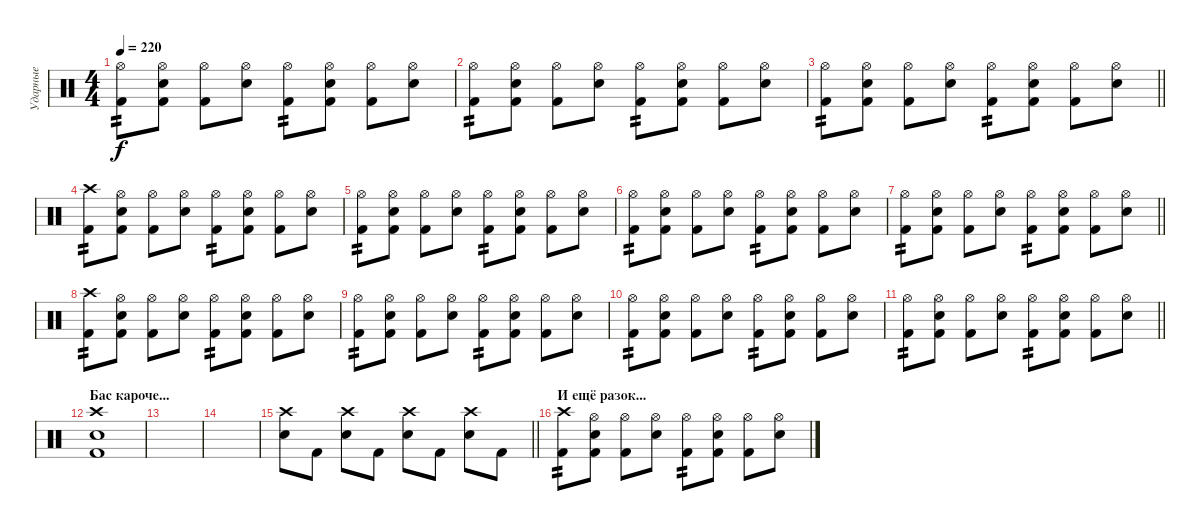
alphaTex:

\track ("Ударные" "Ударные") {instrument percussion}
\staff {score}
\articulation defaults
\ts (4 4)
\tempo 220
\clef neutral
\ks c
("Hi-Hat (open)" "Kick (hit) 2").8{tp 2 dy f} ("Hi-Hat (open)" "Electric Snare (hit)" "Kick (hit) 2").8 ("Hi-Hat (open)" "Kick (hit) 2").8 ("Hi-Hat (open)" "Electric Snare (hit)").8 ("Hi-Hat (open)" "Kick (hit) 2").8{tp 2} ("Hi-Hat (open)" "Electric Snare (hit)" "Kick (hit) 2").8 ("Hi-Hat (open)" "Kick (hit) 2").8 ("Hi-Hat (open)" "Electric Snare (hit)").8 |
("Hi-Hat (open)" "Kick (hit) 2").8{tp 2} ("Hi-Hat (open)" "Electric Snare (hit)" "Kick (hit) 2").8 ("Hi-Hat (open)" "Kick (hit) 2").8 ("Hi-Hat (open)" "Electric Snare (hit)").8 ("Hi-Hat (open)" "Kick (hit) 2").8{tp 2} ("Hi-Hat (open)" "Electric Snare (hit)" "Kick (hit) 2").8 ("Hi-Hat (open)" "Kick (hit) 2").8 ("Hi-Hat (open)" "Electric Snare (hit)").8 |
\barLineRight lightlight
("Hi-Hat (open)" "Kick (hit) 2").8{tp 2} ("Hi-Hat (open)" "Electric Snare (hit)" "Kick (hit) 2").8 ("Hi-Hat (open)" "Kick (hit) 2").8 ("Hi-Hat (open)" "Electric Snare (hit)").8 ("Hi-Hat (open)" "Kick (hit) 2").8{tp 2} ("Hi-Hat (open)" "Electric Snare (hit)" "Kick (hit) 2").8 ("Hi-Hat (open)" "Kick (hit) 2").8 ("Hi-Hat (open)" "Electric Snare (hit)").8 |
("Crash high (hit)" "Kick (hit) 2").8{tp 2} ("Hi-Hat (open)" "Electric Snare (hit)" "Kick (hit) 2").8 ("Hi-Hat (open)" "Kick (hit) 2").8 ("Hi-Hat (open)" "Electric Snare (hit)").8 ("Hi-Hat (open)" "Kick (hit) 2").8{tp 2} ("Hi-Hat (open)" "Electric Snare (hit)" "Kick (hit) 2").8 ("Hi-Hat (open)" "Kick (hit) 2").8 ("Hi-Hat (open)" "Electric Snare (hit)").8 |
("Hi-Hat (open)" "Kick (hit) 2").8{tp 2} ("Hi-Hat (open)" "Electric Snare (hit)" "Kick (hit) 2").8 ("Hi-Hat (open)" "Kick (hit) 2").8 ("Hi-Hat (open)" "Electric Snare (hit)").8 ("Hi-Hat (open)" "Kick (hit) 2").8{tp 2} ("Hi-Hat (open)" "Electric Snare (hit)" "Kick (hit) 2").8 ("Hi-Hat (open)" "Kick (hit) 2").8 ("Hi-Hat (open)" "Electric Snare (hit)").8 |
("Hi-Hat (open)" "Kick (hit) 2").8{tp 2} ("Hi-Hat (open)" "Electric Snare (hit)" "Kick (hit) 2").8 ("Hi-Hat (open)" "Kick (hit) 2").8 ("Hi-Hat (open)" "Electric Snare (hit)").8 ("Hi-Hat (open)" "Kick (hit) 2").8{tp 2} ("Hi-Hat (open)" "Electric Snare (hit)" "Kick (hit) 2").8 ("Hi-Hat (open)" "Kick (hit) 2").8 ("Hi-Hat (open)" "Electric Snare (hit)").8 |
\barLineRight lightlight
("Hi-Hat (open)" "Kick (hit) 2").8{tp 2} ("Hi-Hat (open)" "Electric Snare (hit)" "Kick (hit) 2").8 ("Hi-Hat (open)" "Kick (hit) 2").8 ("Hi-Hat (open)" "Electric Snare (hit)").8 ("Hi-Hat (open)" "Kick (hit) 2").8{tp 2} ("Hi-Hat (open)" "Electric Snare (hit)" "Kick (hit) 2").8 ("Hi-Hat (open)" "Kick (hit) 2").8 ("Hi-Hat (open)" "Electric Snare (hit)").8 |
("Crash high (hit)" "Kick (hit) 2").8{tp 2} ("Hi-Hat (open)" "Electric Snare (hit)" "Kick (hit) 2").8 ("Hi-Hat (open)" "Kick (hit) 2").8 ("Hi-Hat (open)" "Electric Snare (hit)").8 ("Hi-Hat (open)" "Kick (hit) 2").8{tp 2} ("Hi-Hat (open)" "Electric Snare (hit)" "Kick (hit) 2").8 ("Hi-Hat (open)" "Kick (hit) 2").8 ("Hi-Hat (open)" "Electric Snare (hit)").8 |
("Hi-Hat (open)" "Kick (hit) 2").8{tp 2} ("Hi-Hat (open)" "Electric Snare (hit)" "Kick (hit) 2").8 ("Hi-Hat (open)" "Kick (hit) 2").8 ("Hi-Hat (open)" "Electric Snare (hit)").8 ("Hi-Hat (open)" "Kick (hit) 2").8{tp 2} ("Hi-Hat (open)" "Electric Snare (hit)" "Kick (hit) 2").8 ("Hi-Hat (open)" "Kick (hit) 2").8 ("Hi-Hat (open)" "Electric Snare (hit)").8 |
("Hi-Hat (open)" "Kick (hit) 2").8{tp 2} ("Hi-Hat (open)" "Electric Snare (hit)" "Kick (hit) 2").8 ("Hi-Hat (open)" "Kick (hit) 2").8 ("Hi-Hat (open)" "Electric Snare (hit)").8 ("Hi-Hat (open)" "Kick (hit) 2").8{tp 2} ("Hi-Hat (open)" "Electric Snare (hit)" "Kick (hit) 2").8 ("Hi-Hat (open)" "Kick (hit) 2").8 ("Hi-Hat (open)" "Electric Snare (hit)").8 |
\barLineRight lightlight
("Hi-Hat (open)" "Kick (hit) 2").8{tp 2} ("Hi-Hat (open)" "Electric Snare (hit)" "Kick (hit) 2").8 ("Hi-Hat (open)" "Kick (hit) 2").8 ("Hi-Hat (open)" "Electric Snare (hit)").8 ("Hi-Hat (open)" "Kick (hit) 2").8{tp 2} ("Hi-Hat (open)" "Electric Snare (hit)" "Kick (hit) 2").8 ("Hi-Hat (open)" "Kick (hit) 2").8 ("Hi-Hat (open)" "Electric Snare (hit)").8 |
\section ("" "Бас кароче...")
("Crash high (hit)" "Electric Snare (hit)" "Kick (hit) 2").1 |
|
|
\barLineRight lightlight
("Crash high (hit)" "Electric Snare (hit)").8 "Kick (hit) 2".8 ("Crash high (hit)" "Electric Snare (hit)").8 "Kick (hit) 2".8 ("Crash high (hit)" "Electric Snare (hit)").8 "Kick (hit) 2".8 ("Crash high (hit)" "Electric Snare (hit)").8 "Kick (hit) 2".8 |
\section ("" "И ещё разок...")
("Crash high (hit)" "Kick (hit) 2").8{tp 2} ("Hi-Hat (open)" "Electric Snare (hit)" "Kick (hit) 2").8 ("Hi-Hat (open)" "Kick (hit) 2").8 ("Hi-Hat (open)" "Electric Snare (hit)").8 ("Hi-Hat (open)" "Kick (hit) 2").8{tp 2} ("Hi-Hat (open)" "Electric Snare (hit)" "Kick (hit) 2").8 ("Hi-Hat (open)" "Kick (hit) 2").8 ("Hi-Hat (open)" "Electric Snare (hit)").8
